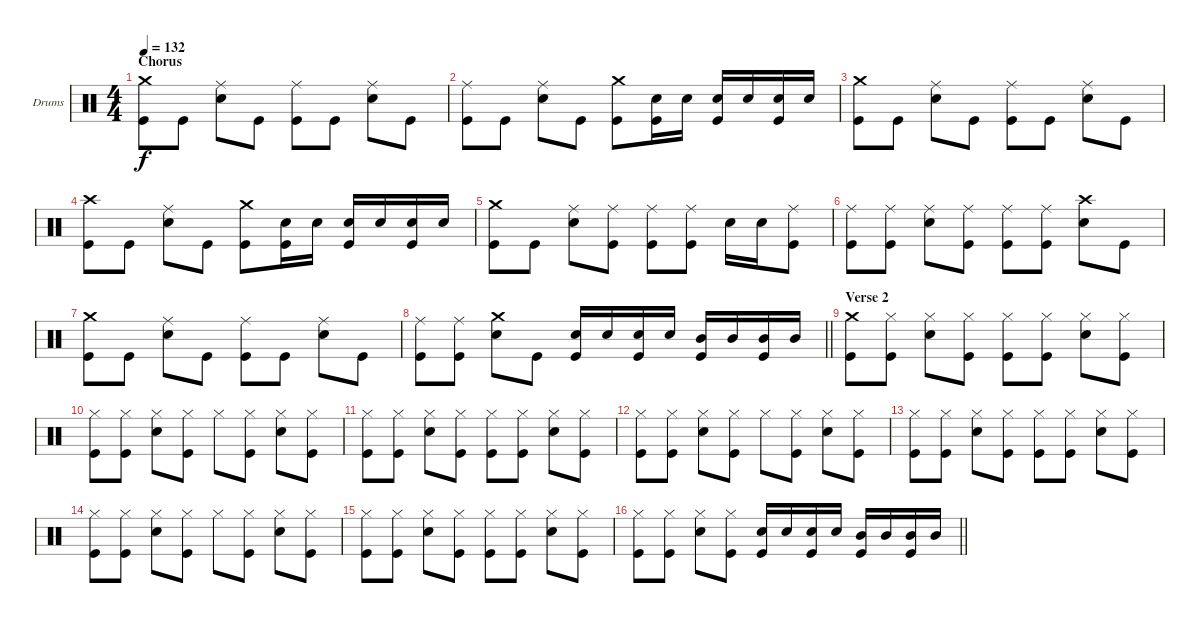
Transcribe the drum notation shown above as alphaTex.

\bracketExtendMode groupsimilarinstruments
\firstSystemTrackNameOrientation horizontal
\otherSystemsTrackNameOrientation horizontal
\track ("Drumkit" "Drums") {instrument percussion}
\staff {score}
\articulation defaults
\ts (4 4)
\section ("" "Chorus")
\tempo 132
\clef neutral
\ks c
("Crash medium (hit)" "Kick (hit)").8{dy f} "Kick (hit)".8 ("Ride (middle)" "Snare (hit) 2").8 "Kick (hit)".8 ("Ride (middle)" "Kick (hit)").8 "Kick (hit)".8 ("Ride (middle)" "Snare (hit) 2").8 "Kick (hit)".8 |
("Ride (middle)" "Kick (hit)").8 "Kick (hit)".8 ("Ride (middle)" "Snare (hit) 2").8 "Kick (hit)".8 ("Crash medium (hit)" "Kick (hit)").8 ("Snare (hit) 2" "Kick (hit)").16 "Snare (hit) 2".16 ("Snare (hit) 2" "Kick (hit)").16 "Snare (hit) 2".16 ("Snare (hit) 2" "Kick (hit)").16 "Snare (hit) 2".16 |
("Crash medium (hit)" "Kick (hit)").8 "Kick (hit)".8 ("Ride (middle)" "Snare (hit) 2").8 "Kick (hit)".8 ("Ride (middle)" "Kick (hit)").8 "Kick (hit)".8 ("Ride (middle)" "Snare (hit) 2").8 "Kick (hit)".8 |
("Crash high (hit)" "Kick (hit)").8 "Kick (hit)".8 ("Ride (middle)" "Snare (hit) 2").8 "Kick (hit)".8 ("Crash medium (hit)" "Kick (hit)").8 ("Snare (hit) 2" "Kick (hit)").16 "Snare (hit) 2".16 ("Snare (hit) 2" "Kick (hit)").16 "Snare (hit) 2".16 ("Snare (hit) 2" "Kick (hit)").16 "Snare (hit) 2".16 |
("Crash medium (hit)" "Kick (hit)").8 "Kick (hit)".8 ("Ride (middle)" "Snare (hit) 2").8 ("Ride (middle)" "Kick (hit)").8 ("Ride (middle)" "Kick (hit)").8 ("Ride (middle)" "Kick (hit)").8 "Snare (hit) 2".16 "Snare (hit) 2".16 ("Ride (middle)" "Kick (hit)").8 |
("Ride (middle)" "Kick (hit)").8 ("Ride (middle)" "Kick (hit)").8 ("Ride (middle)" "Snare (hit) 2").8 ("Ride (middle)" "Kick (hit)").8 ("Ride (middle)" "Kick (hit)").8 ("Ride (middle)" "Kick (hit)").8 ("Crash high (hit)" "Snare (hit) 2").8 "Kick (hit)".8 |
("Crash medium (hit)" "Kick (hit)").8 "Kick (hit)".8 ("Ride (middle)" "Snare (hit) 2").8 "Kick (hit)".8 ("Ride (middle)" "Kick (hit)").8 "Kick (hit)".8 ("Ride (middle)" "Snare (hit) 2").8 "Kick (hit)".8 |
\barLineRight lightlight
("Ride (middle)" "Kick (hit)").8 ("Ride (middle)" "Kick (hit)").8 ("Crash medium (hit)" "Snare (hit) 2").8 "Kick (hit)".8 ("Snare (hit) 2" "Kick (hit)").16 "Snare (hit) 2".16 ("Snare (hit) 2" "Kick (hit)").16 "Snare (hit) 2".16 ("Mid Tom (hit)" "Kick (hit)").16 "Mid Tom (hit)".16 ("Mid Tom (hit)" "Kick (hit)").16 "Mid Tom (hit)".16 |
\section ("" "Verse 2")
("Crash medium (hit)" "Kick (hit)").8 ("Hi-Hat (closed)" "Kick (hit)").8 ("Hi-Hat (closed)" "Snare (hit) 2").8 ("Hi-Hat (closed)" "Kick (hit)").8 ("Hi-Hat (closed)" "Kick (hit)").8 ("Hi-Hat (closed)" "Kick (hit)").8 ("Hi-Hat (closed)" "Snare (hit) 2").8 ("Hi-Hat (closed)" "Kick (hit)").8 |
("Hi-Hat (closed)" "Kick (hit)").8 ("Hi-Hat (closed)" "Kick (hit)").8 ("Hi-Hat (closed)" "Snare (hit) 2").8 ("Hi-Hat (closed)" "Kick (hit)").8 "Hi-Hat (closed)".8 ("Hi-Hat (closed)" "Kick (hit)").8 ("Hi-Hat (closed)" "Snare (hit) 2").8 ("Hi-Hat (closed)" "Kick (hit)").8 |
("Hi-Hat (closed)" "Kick (hit)").8 ("Hi-Hat (closed)" "Kick (hit)").8 ("Hi-Hat (closed)" "Snare (hit) 2").8 ("Hi-Hat (closed)" "Kick (hit)").8 ("Hi-Hat (closed)" "Kick (hit)").8 ("Hi-Hat (closed)" "Kick (hit)").8 ("Hi-Hat (closed)" "Snare (hit) 2").8 ("Hi-Hat (closed)" "Kick (hit)").8 |
("Hi-Hat (closed)" "Kick (hit)").8 ("Hi-Hat (closed)" "Kick (hit)").8 ("Hi-Hat (closed)" "Snare (hit) 2").8 ("Hi-Hat (closed)" "Kick (hit)").8 "Hi-Hat (closed)".8 ("Hi-Hat (closed)" "Kick (hit)").8 ("Hi-Hat (closed)" "Snare (hit) 2").8 ("Hi-Hat (closed)" "Kick (hit)").8 |
("Hi-Hat (closed)" "Kick (hit)").8 ("Hi-Hat (closed)" "Kick (hit)").8 ("Hi-Hat (closed)" "Snare (hit) 2").8 ("Hi-Hat (closed)" "Kick (hit)").8 ("Hi-Hat (closed)" "Kick (hit)").8 ("Hi-Hat (closed)" "Kick (hit)").8 ("Hi-Hat (closed)" "Snare (hit) 2").8 ("Hi-Hat (closed)" "Kick (hit)").8 |
("Hi-Hat (closed)" "Kick (hit)").8 ("Hi-Hat (closed)" "Kick (hit)").8 ("Hi-Hat (closed)" "Snare (hit) 2").8 ("Hi-Hat (closed)" "Kick (hit)").8 "Hi-Hat (closed)".8 ("Hi-Hat (closed)" "Kick (hit)").8 ("Hi-Hat (closed)" "Snare (hit) 2").8 ("Hi-Hat (closed)" "Kick (hit)").8 |
("Hi-Hat (closed)" "Kick (hit)").8 ("Hi-Hat (closed)" "Kick (hit)").8 ("Hi-Hat (closed)" "Snare (hit) 2").8 ("Hi-Hat (closed)" "Kick (hit)").8 ("Hi-Hat (closed)" "Kick (hit)").8 ("Hi-Hat (closed)" "Kick (hit)").8 ("Hi-Hat (closed)" "Snare (hit) 2").8 ("Hi-Hat (closed)" "Kick (hit)").8 |
\barLineRight lightlight
("Hi-Hat (closed)" "Kick (hit)").8 ("Hi-Hat (closed)" "Kick (hit)").8 ("Hi-Hat (closed)" "Snare (hit) 2").8 ("Hi-Hat (closed)" "Kick (hit)").8 ("Snare (hit) 2" "Kick (hit)").16 "Snare (hit) 2".16 ("Snare (hit) 2" "Kick (hit)").16 "Snare (hit) 2".16 ("Mid Tom (hit)" "Kick (hit)").16 "Mid Tom (hit)".16 ("Mid Tom (hit)" "Kick (hit)").16 "Mid Tom (hit)".16
